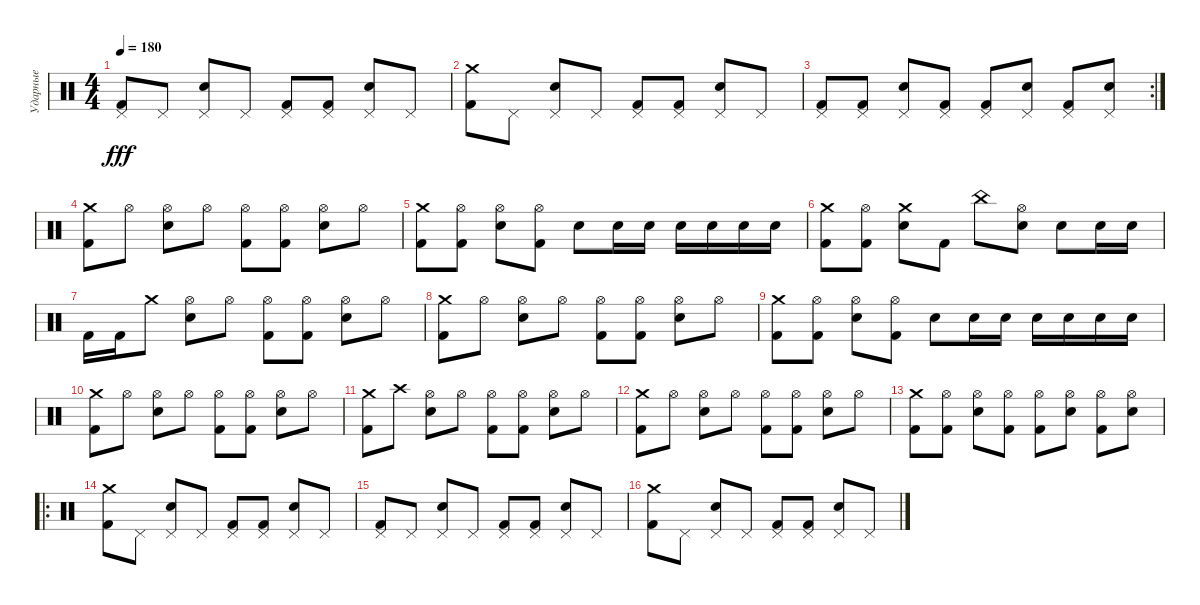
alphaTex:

\track ("Ударные" "Ударные") {instrument percussion}
\staff {score}
\articulation defaults
\ts (4 4)
\tempo 180
\clef neutral
\ks c
("Pedal Hi-Hat (hit)" "Kick (hit) 2").8{dy fff} "Pedal Hi-Hat (hit)".8 ("Pedal Hi-Hat (hit)" "Electric Snare (hit)").8 "Pedal Hi-Hat (hit)".8 ("Pedal Hi-Hat (hit)" "Kick (hit) 2").8 ("Pedal Hi-Hat (hit)" "Kick (hit) 2").8 ("Pedal Hi-Hat (hit)" "Electric Snare (hit)").8 "Pedal Hi-Hat (hit)".8 |
("Crash medium (hit)" "Kick (hit) 2").8 "Pedal Hi-Hat (hit)".8 ("Pedal Hi-Hat (hit)" "Electric Snare (hit)").8 "Pedal Hi-Hat (hit)".8 ("Pedal Hi-Hat (hit)" "Kick (hit) 2").8 ("Pedal Hi-Hat (hit)" "Kick (hit) 2").8 ("Pedal Hi-Hat (hit)" "Electric Snare (hit)").8 "Pedal Hi-Hat (hit)".8 |
\rc 2
("Pedal Hi-Hat (hit)" "Kick (hit) 2").8 ("Pedal Hi-Hat (hit)" "Kick (hit) 2").8 ("Pedal Hi-Hat (hit)" "Electric Snare (hit)").8 ("Pedal Hi-Hat (hit)" "Kick (hit) 2").8 ("Pedal Hi-Hat (hit)" "Kick (hit) 2").8 ("Pedal Hi-Hat (hit)" "Electric Snare (hit)").8 ("Pedal Hi-Hat (hit)" "Kick (hit) 2").8 ("Pedal Hi-Hat (hit)" "Electric Snare (hit)").8 |
("Crash medium (hit)" "Kick (hit) 2").8 "Hi-Hat (open)".8 ("Hi-Hat (open)" "Electric Snare (hit)").8 "Hi-Hat (open)".8 ("Hi-Hat (open)" "Kick (hit) 2").8 ("Hi-Hat (open)" "Kick (hit) 2").8 ("Hi-Hat (open)" "Electric Snare (hit)").8 "Hi-Hat (open)".8 |
("Crash medium (hit)" "Kick (hit) 2").8 ("Hi-Hat (open)" "Kick (hit) 2").8 ("Hi-Hat (open)" "Electric Snare (hit)").8 ("Hi-Hat (open)" "Kick (hit) 2").8 "Electric Snare (hit)".8 "Electric Snare (hit)".16 "Electric Snare (hit)".16 "Electric Snare (hit)".16 "Electric Snare (hit)".16 "Electric Snare (hit)".16 "Electric Snare (hit)".16 |
("Crash medium (hit)" "Kick (hit) 2").8 ("Hi-Hat (open)" "Kick (hit) 2").8 ("Crash medium (hit)" "Electric Snare (hit)").8 "Kick (hit) 2".8 "China (hit)".8 ("Hi-Hat (open)" "Electric Snare (hit)").8 "Electric Snare (hit)".8 "Electric Snare (hit)".16 "Electric Snare (hit)".16 |
"Kick (hit) 2".16 "Kick (hit) 2".16 "Crash medium (hit)".8 ("Hi-Hat (open)" "Electric Snare (hit)").8 "Hi-Hat (open)".8 ("Hi-Hat (open)" "Kick (hit) 2").8 ("Hi-Hat (open)" "Kick (hit) 2").8 ("Hi-Hat (open)" "Electric Snare (hit)").8 "Hi-Hat (open)".8 |
("Crash medium (hit)" "Kick (hit) 2").8 "Hi-Hat (open)".8 ("Hi-Hat (open)" "Electric Snare (hit)").8 "Hi-Hat (open)".8 ("Hi-Hat (open)" "Kick (hit) 2").8 ("Hi-Hat (open)" "Kick (hit) 2").8 ("Hi-Hat (open)" "Electric Snare (hit)").8 "Hi-Hat (open)".8 |
("Crash medium (hit)" "Kick (hit) 2").8 ("Hi-Hat (open)" "Kick (hit) 2").8 ("Hi-Hat (open)" "Electric Snare (hit)").8 ("Hi-Hat (open)" "Kick (hit) 2").8 "Electric Snare (hit)".8 "Electric Snare (hit)".16 "Electric Snare (hit)".16 "Electric Snare (hit)".16 "Electric Snare (hit)".16 "Electric Snare (hit)".16 "Electric Snare (hit)".16 |
("Crash medium (hit)" "Kick (hit) 2").8 "Hi-Hat (open)".8 ("Hi-Hat (open)" "Electric Snare (hit)").8 "Hi-Hat (open)".8 ("Hi-Hat (open)" "Kick (hit) 2").8 ("Hi-Hat (open)" "Kick (hit) 2").8 ("Hi-Hat (open)" "Electric Snare (hit)").8 "Hi-Hat (open)".8 |
("Crash medium (hit)" "Kick (hit) 2").8 "Crash high (hit)".8 ("Hi-Hat (open)" "Electric Snare (hit)").8 "Hi-Hat (open)".8 ("Hi-Hat (open)" "Kick (hit) 2").8 ("Hi-Hat (open)" "Kick (hit) 2").8 ("Hi-Hat (open)" "Electric Snare (hit)").8 "Hi-Hat (open)".8 |
("Crash medium (hit)" "Kick (hit) 2").8 "Hi-Hat (open)".8 ("Hi-Hat (open)" "Electric Snare (hit)").8 "Hi-Hat (open)".8 ("Hi-Hat (open)" "Kick (hit) 2").8 ("Hi-Hat (open)" "Kick (hit) 2").8 ("Hi-Hat (open)" "Electric Snare (hit)").8 "Hi-Hat (open)".8 |
("Crash medium (hit)" "Kick (hit) 2").8 ("Hi-Hat (open)" "Kick (hit) 2").8 ("Hi-Hat (open)" "Electric Snare (hit)").8 ("Hi-Hat (open)" "Kick (hit) 2").8 ("Hi-Hat (open)" "Kick (hit) 2").8 ("Hi-Hat (open)" "Electric Snare (hit)").8 ("Hi-Hat (open)" "Kick (hit) 2").8 ("Hi-Hat (open)" "Electric Snare (hit)").8 |
\ro
("Crash medium (hit)" "Kick (hit) 2").8 "Pedal Hi-Hat (hit)".8 ("Pedal Hi-Hat (hit)" "Electric Snare (hit)").8 "Pedal Hi-Hat (hit)".8 ("Pedal Hi-Hat (hit)" "Kick (hit) 2").8 ("Pedal Hi-Hat (hit)" "Kick (hit) 2").8 ("Pedal Hi-Hat (hit)" "Electric Snare (hit)").8 "Pedal Hi-Hat (hit)".8 |
("Pedal Hi-Hat (hit)" "Kick (hit) 2").8 "Pedal Hi-Hat (hit)".8 ("Pedal Hi-Hat (hit)" "Electric Snare (hit)").8 "Pedal Hi-Hat (hit)".8 ("Pedal Hi-Hat (hit)" "Kick (hit) 2").8 ("Pedal Hi-Hat (hit)" "Kick (hit) 2").8 ("Pedal Hi-Hat (hit)" "Electric Snare (hit)").8 "Pedal Hi-Hat (hit)".8 |
("Crash medium (hit)" "Kick (hit) 2").8 "Pedal Hi-Hat (hit)".8 ("Pedal Hi-Hat (hit)" "Electric Snare (hit)").8 "Pedal Hi-Hat (hit)".8 ("Pedal Hi-Hat (hit)" "Kick (hit) 2").8 ("Pedal Hi-Hat (hit)" "Kick (hit) 2").8 ("Pedal Hi-Hat (hit)" "Electric Snare (hit)").8 "Pedal Hi-Hat (hit)".8
